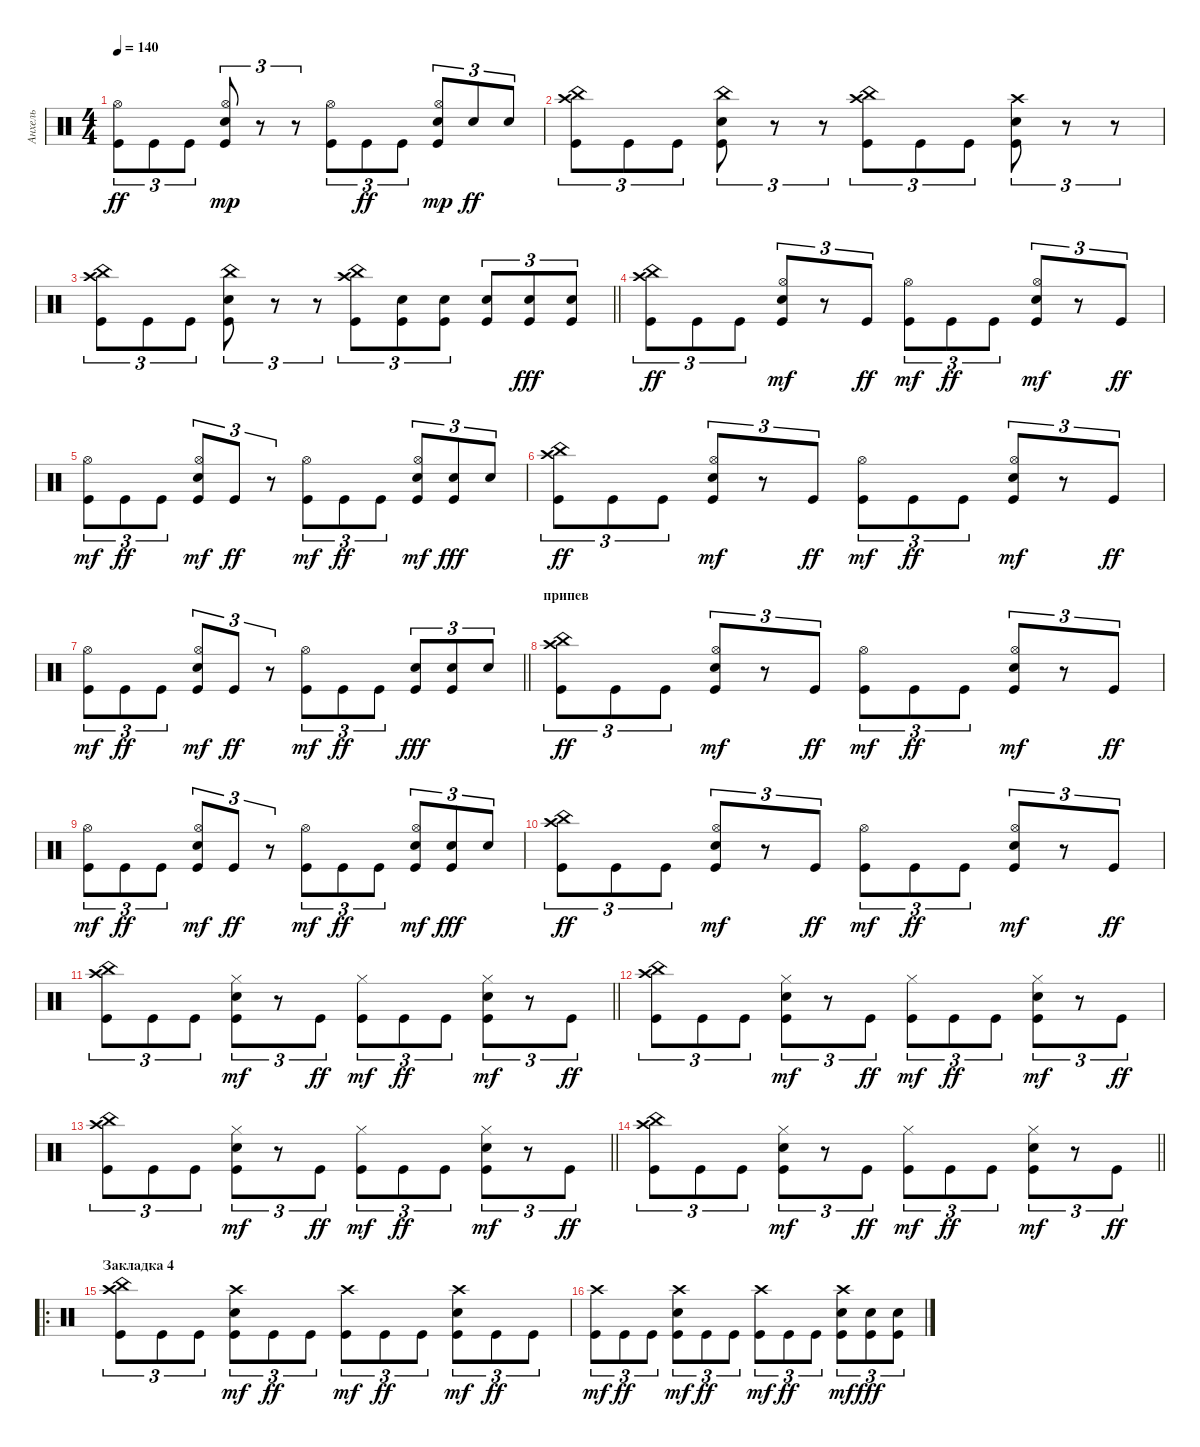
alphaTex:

\track ("Анхель" "Анхель") {instrument percussion}
\staff {score}
\articulation defaults
\ts (4 4)
\tempo 140
\clef neutral
\ks c
("Kick (hit)" "Hi-Hat (open)").8{tu (3 2) dy ff} "Kick (hit)".8{tu (3 2)} "Kick (hit)".8{tu (3 2)} ("Kick (hit)" "Snare (hit) 2" "Hi-Hat (open)").8{tu (3 2) dy mp} r.8{tu (3 2)} r.8{tu (3 2)} ("Kick (hit)" "Hi-Hat (open)").8{tu (3 2)} "Kick (hit)".8{tu (3 2) dy ff} "Kick (hit)".8{tu (3 2)} ("Kick (hit)" "Snare (hit) 2" "Hi-Hat (open)").8{tu (3 2) dy mp} "Snare (hit) 2".8{tu (3 2) dy ff} "Snare (hit) 2".8{tu (3 2)} |
("Kick (hit)" "China (hit)" "Crash high (hit)").8{tu (3 2)} "Kick (hit)".8{tu (3 2)} "Kick (hit)".8{tu (3 2)} ("Kick (hit)" "Snare (hit) 2" "China (hit)").8{tu (3 2)} r.8{tu (3 2)} r.8{tu (3 2)} ("Kick (hit)" "China (hit)" "Crash high (hit)").8{tu (3 2)} "Kick (hit)".8{tu (3 2)} "Kick (hit)".8{tu (3 2)} ("Kick (hit)" "Snare (hit) 2" "Crash high (hit)").8{tu (3 2)} r.8{tu (3 2)} r.8{tu (3 2)} |
\barLineRight lightlight
("Kick (hit)" "China (hit)" "Crash high (hit)").8{tu (3 2)} "Kick (hit)".8{tu (3 2)} "Kick (hit)".8{tu (3 2)} ("Kick (hit)" "Snare (hit) 2" "China (hit)").8{tu (3 2)} r.8{tu (3 2)} r.8{tu (3 2)} ("Kick (hit)" "China (hit)" "Crash high (hit)").8{tu (3 2)} ("Kick (hit)" "Snare (hit) 2").8{tu (3 2)} ("Kick (hit)" "Snare (hit) 2").8{tu (3 2)} ("Kick (hit)" "Snare (hit) 2").8{tu (3 2)} ("Kick (hit)" "Snare (hit) 2").8{tu (3 2) dy fff} ("Kick (hit)" "Snare (hit) 2").8{tu (3 2)} |
("Kick (hit)" "China (hit)" "Crash high (hit)").8{tu (3 2) dy ff} "Kick (hit)".8{tu (3 2)} "Kick (hit)".8{tu (3 2)} ("Kick (hit)" "Snare (hit) 2" "Hi-Hat (open)").8{tu (3 2) dy mf} r.8{tu (3 2)} "Kick (hit)".8{tu (3 2) dy ff} ("Kick (hit)" "Hi-Hat (open)").8{tu (3 2) dy mf} "Kick (hit)".8{tu (3 2) dy ff} "Kick (hit)".8{tu (3 2)} ("Kick (hit)" "Snare (hit) 2" "Hi-Hat (open)").8{tu (3 2) dy mf} r.8{tu (3 2)} "Kick (hit)".8{tu (3 2) dy ff} |
("Kick (hit)" "Hi-Hat (open)").8{tu (3 2) dy mf} "Kick (hit)".8{tu (3 2) dy ff} "Kick (hit)".8{tu (3 2)} ("Kick (hit)" "Snare (hit) 2" "Hi-Hat (open)").8{tu (3 2) dy mf} "Kick (hit)".8{tu (3 2) dy ff} r.8{tu (3 2)} ("Kick (hit)" "Hi-Hat (open)").8{tu (3 2) dy mf} "Kick (hit)".8{tu (3 2) dy ff} "Kick (hit)".8{tu (3 2)} ("Kick (hit)" "Snare (hit) 2" "Hi-Hat (open)").8{tu (3 2) dy mf} ("Kick (hit)" "Snare (hit) 2").8{tu (3 2) dy fff} "Snare (hit) 2".8{tu (3 2)} |
("Kick (hit)" "China (hit)" "Crash high (hit)").8{tu (3 2) dy ff} "Kick (hit)".8{tu (3 2)} "Kick (hit)".8{tu (3 2)} ("Kick (hit)" "Snare (hit) 2" "Hi-Hat (open)").8{tu (3 2) dy mf} r.8{tu (3 2)} "Kick (hit)".8{tu (3 2) dy ff} ("Kick (hit)" "Hi-Hat (open)").8{tu (3 2) dy mf} "Kick (hit)".8{tu (3 2) dy ff} "Kick (hit)".8{tu (3 2)} ("Kick (hit)" "Snare (hit) 2" "Hi-Hat (open)").8{tu (3 2) dy mf} r.8{tu (3 2)} "Kick (hit)".8{tu (3 2) dy ff} |
\barLineRight lightlight
("Kick (hit)" "Hi-Hat (open)").8{tu (3 2) dy mf} "Kick (hit)".8{tu (3 2) dy ff} "Kick (hit)".8{tu (3 2)} ("Kick (hit)" "Snare (hit) 2" "Hi-Hat (open)").8{tu (3 2) dy mf} "Kick (hit)".8{tu (3 2) dy ff} r.8{tu (3 2)} ("Kick (hit)" "Hi-Hat (open)").8{tu (3 2) dy mf} "Kick (hit)".8{tu (3 2) dy ff} "Kick (hit)".8{tu (3 2)} ("Kick (hit)" "Snare (hit) 2").8{tu (3 2) dy fff} ("Kick (hit)" "Snare (hit) 2").8{tu (3 2)} "Snare (hit) 2".8{tu (3 2)} |
\section ("" "припев")
("Kick (hit)" "China (hit)" "Crash high (hit)").8{tu (3 2) dy ff} "Kick (hit)".8{tu (3 2)} "Kick (hit)".8{tu (3 2)} ("Kick (hit)" "Snare (hit) 2" "Hi-Hat (open)").8{tu (3 2) dy mf} r.8{tu (3 2)} "Kick (hit)".8{tu (3 2) dy ff} ("Kick (hit)" "Hi-Hat (open)").8{tu (3 2) dy mf} "Kick (hit)".8{tu (3 2) dy ff} "Kick (hit)".8{tu (3 2)} ("Kick (hit)" "Snare (hit) 2" "Hi-Hat (open)").8{tu (3 2) dy mf} r.8{tu (3 2)} "Kick (hit)".8{tu (3 2) dy ff} |
("Kick (hit)" "Hi-Hat (open)").8{tu (3 2) dy mf} "Kick (hit)".8{tu (3 2) dy ff} "Kick (hit)".8{tu (3 2)} ("Kick (hit)" "Snare (hit) 2" "Hi-Hat (open)").8{tu (3 2) dy mf} "Kick (hit)".8{tu (3 2) dy ff} r.8{tu (3 2)} ("Kick (hit)" "Hi-Hat (open)").8{tu (3 2) dy mf} "Kick (hit)".8{tu (3 2) dy ff} "Kick (hit)".8{tu (3 2)} ("Kick (hit)" "Snare (hit) 2" "Hi-Hat (open)").8{tu (3 2) dy mf} ("Kick (hit)" "Snare (hit) 2").8{tu (3 2) dy fff} "Snare (hit) 2".8{tu (3 2)} |
("Kick (hit)" "China (hit)" "Crash high (hit)").8{tu (3 2) dy ff} "Kick (hit)".8{tu (3 2)} "Kick (hit)".8{tu (3 2)} ("Kick (hit)" "Snare (hit) 2" "Hi-Hat (open)").8{tu (3 2) dy mf} r.8{tu (3 2)} "Kick (hit)".8{tu (3 2) dy ff} ("Kick (hit)" "Hi-Hat (open)").8{tu (3 2) dy mf} "Kick (hit)".8{tu (3 2) dy ff} "Kick (hit)".8{tu (3 2)} ("Kick (hit)" "Snare (hit) 2" "Hi-Hat (open)").8{tu (3 2) dy mf} r.8{tu (3 2)} "Kick (hit)".8{tu (3 2) dy ff} |
\barLineRight lightlight
("Kick (hit)" "China (hit)" "Crash high (hit)").8{tu (3 2)} "Kick (hit)".8{tu (3 2)} "Kick (hit)".8{tu (3 2)} ("Hi-Hat (closed)" "Snare (hit) 2" "Kick (hit)").8{tu (3 2) dy mf} r.8{tu (3 2)} "Kick (hit)".8{tu (3 2) dy ff} ("Kick (hit)" "Hi-Hat (closed)").8{tu (3 2) dy mf} "Kick (hit)".8{tu (3 2) dy ff} "Kick (hit)".8{tu (3 2)} ("Kick (hit)" "Snare (hit) 2" "Hi-Hat (closed)").8{tu (3 2) dy mf} r.8{tu (3 2)} "Kick (hit)".8{tu (3 2) dy ff} |
("Kick (hit)" "China (hit)" "Crash high (hit)").8{tu (3 2)} "Kick (hit)".8{tu (3 2)} "Kick (hit)".8{tu (3 2)} ("Hi-Hat (closed)" "Snare (hit) 2" "Kick (hit)").8{tu (3 2) dy mf} r.8{tu (3 2)} "Kick (hit)".8{tu (3 2) dy ff} ("Kick (hit)" "Hi-Hat (closed)").8{tu (3 2) dy mf} "Kick (hit)".8{tu (3 2) dy ff} "Kick (hit)".8{tu (3 2)} ("Kick (hit)" "Snare (hit) 2" "Hi-Hat (closed)").8{tu (3 2) dy mf} r.8{tu (3 2)} "Kick (hit)".8{tu (3 2) dy ff} |
\barLineRight lightlight
("Kick (hit)" "China (hit)" "Crash high (hit)").8{tu (3 2)} "Kick (hit)".8{tu (3 2)} "Kick (hit)".8{tu (3 2)} ("Hi-Hat (closed)" "Snare (hit) 2" "Kick (hit)").8{tu (3 2) dy mf} r.8{tu (3 2)} "Kick (hit)".8{tu (3 2) dy ff} ("Kick (hit)" "Hi-Hat (closed)").8{tu (3 2) dy mf} "Kick (hit)".8{tu (3 2) dy ff} "Kick (hit)".8{tu (3 2)} ("Kick (hit)" "Snare (hit) 2" "Hi-Hat (closed)").8{tu (3 2) dy mf} r.8{tu (3 2)} "Kick (hit)".8{tu (3 2) dy ff} |
\barLineRight lightlight
("Kick (hit)" "China (hit)" "Crash high (hit)").8{tu (3 2)} "Kick (hit)".8{tu (3 2)} "Kick (hit)".8{tu (3 2)} ("Hi-Hat (closed)" "Snare (hit) 2" "Kick (hit)").8{tu (3 2) dy mf} r.8{tu (3 2)} "Kick (hit)".8{tu (3 2) dy ff} ("Kick (hit)" "Hi-Hat (closed)").8{tu (3 2) dy mf} "Kick (hit)".8{tu (3 2) dy ff} "Kick (hit)".8{tu (3 2)} ("Kick (hit)" "Snare (hit) 2" "Hi-Hat (closed)").8{tu (3 2) dy mf} r.8{tu (3 2)} "Kick (hit)".8{tu (3 2) dy ff} |
\ro
\section ("" "Закладка 4")
("Kick (hit)" "China (hit)" "Crash high (hit)").8{tu (3 2)} "Kick (hit)".8{tu (3 2)} "Kick (hit)".8{tu (3 2)} ("Kick (hit)" "Snare (hit) 2" "Crash high (hit)").8{tu (3 2) dy mf} "Kick (hit)".8{tu (3 2) dy ff} "Kick (hit)".8{tu (3 2)} ("Kick (hit)" "Crash high (hit)").8{tu (3 2) dy mf} "Kick (hit)".8{tu (3 2) dy ff} "Kick (hit)".8{tu (3 2)} ("Kick (hit)" "Snare (hit) 2" "Crash high (hit)").8{tu (3 2) dy mf} "Kick (hit)".8{tu (3 2) dy ff} "Kick (hit)".8{tu (3 2)} |
("Kick (hit)" "Crash high (hit)").8{tu (3 2) dy mf} "Kick (hit)".8{tu (3 2) dy ff} "Kick (hit)".8{tu (3 2)} ("Kick (hit)" "Snare (hit) 2" "Crash high (hit)").8{tu (3 2) dy mf} "Kick (hit)".8{tu (3 2) dy ff} "Kick (hit)".8{tu (3 2)} ("Kick (hit)" "Crash high (hit)").8{tu (3 2) dy mf} "Kick (hit)".8{tu (3 2) dy ff} "Kick (hit)".8{tu (3 2)} ("Kick (hit)" "Snare (hit) 2" "Crash high (hit)").8{tu (3 2) dy mf} ("Kick (hit)" "Snare (hit) 2").8{tu (3 2) dy fff} ("Kick (hit)" "Snare (hit) 2").8{tu (3 2)}
